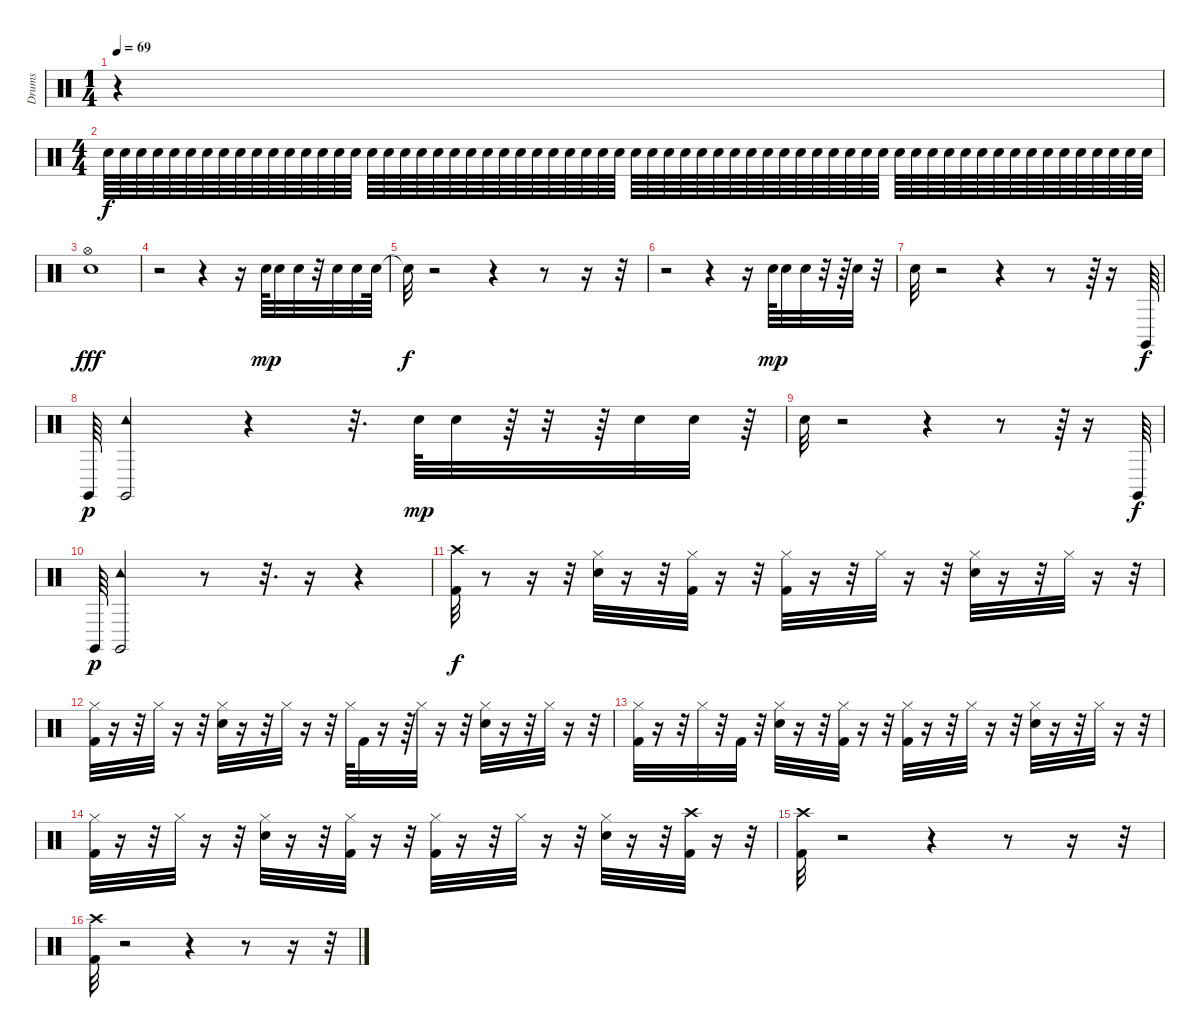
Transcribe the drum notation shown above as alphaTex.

\track ("Drums" "Drums") {instrument percussion}
\staff {score}
\articulation defaults
\ts (1 4)
\tempo 69
\clef neutral
\ks c
r.4{dy f volume 0} |
\ts (4 4)
"Snare (hit) 2".64{volume 16} "Snare (hit) 2".64 "Snare (hit) 2".64 "Snare (hit) 2".64 "Snare (hit) 2".64 "Snare (hit) 2".64 "Snare (hit) 2".64 "Snare (hit) 2".64 "Snare (hit) 2".64 "Snare (hit) 2".64 "Snare (hit) 2".64 "Snare (hit) 2".64 "Snare (hit) 2".64 "Snare (hit) 2".64 "Snare (hit) 2".64 "Snare (hit) 2".64 "Snare (hit) 2".64 "Snare (hit) 2".64 "Snare (hit) 2".64 "Snare (hit) 2".64 "Snare (hit) 2".64 "Snare (hit) 2".64 "Snare (hit) 2".64 "Snare (hit) 2".64 "Snare (hit) 2".64 "Snare (hit) 2".64 "Snare (hit) 2".64 "Snare (hit) 2".64 "Snare (hit) 2".64 "Snare (hit) 2".64 "Snare (hit) 2".64 "Snare (hit) 2".64 "Snare (hit) 2".64 "Snare (hit) 2".64 "Snare (hit) 2".64 "Snare (hit) 2".64 "Snare (hit) 2".64 "Snare (hit) 2".64 "Snare (hit) 2".64 "Snare (hit) 2".64 "Snare (hit) 2".64 "Snare (hit) 2".64 "Snare (hit) 2".64 "Snare (hit) 2".64 "Snare (hit) 2".64 "Snare (hit) 2".64 "Snare (hit) 2".64 "Snare (hit) 2".64 "Snare (hit) 2".64 "Snare (hit) 2".64 "Snare (hit) 2".64 "Snare (hit) 2".64 "Snare (hit) 2".64 "Snare (hit) 2".64 "Snare (hit) 2".64 "Snare (hit) 2".64 "Snare (hit) 2".64 "Snare (hit) 2".64 "Snare (hit) 2".64 "Snare (hit) 2".64 "Snare (hit) 2".64 "Snare (hit) 2".64 "Snare (hit) 2".64 "Snare (hit) 2".64 |
("Snare (hit) 2" "Hi-Hat (open)").1{dy fff} |
r.2 r.4 r.16 "Snare (hit) 2".64{dy mp} "Snare (hit) 2".32 "Snare (hit) 2".32 r.32 "Snare (hit) 2".32 "Snare (hit) 2".32 "Snare (hit) 2".64 |
"Snare (hit)"{t}.32{dy f} r.2 r.4 r.8 r.16 r.32 |
r.2 r.4 r.16 "Snare (hit) 2".64{dy mp} "Snare (hit) 2".32 "Snare (hit) 2".32 r.32 r.64 "Snare (hit) 2".32 r.32 |
"Snare (hit) 2".32 r.2 r.4 r.8 r.64 r.16 "Claves (hit)".64{dy f} |
"Claves (hit)".64{dy p} ("Claves (hit)" "Tambourine (hit)").2 r.4 r.32{d} "Snare (hit) 2".64{dy mp} "Snare (hit) 2".32 r.64 r.32 r.64 "Snare (hit) 2".32 "Snare (hit) 2".32 r.64 |
"Snare (hit) 2".32 r.2 r.4 r.8 r.64 r.16 "Claves (hit)".64{dy f} |
"Claves (hit)".64{dy p} ("Claves (hit)" "Tambourine (hit)").2 r.8 r.32{d} r.16 r.4 |
("Kick (hit) 2" "Crash high (hit)").32{dy f} r.8 r.16 r.32 ("Snare (hit) 2" "Hi-Hat (closed)").32 r.16 r.32 ("Hi-Hat (closed)" "Kick (hit) 2").32 r.16 r.32 ("Hi-Hat (closed)" "Kick (hit) 2").32 r.16 r.32 "Hi-Hat (closed)".32 r.16 r.32 ("Snare (hit) 2" "Hi-Hat (closed)").32 r.16 r.32 "Hi-Hat (closed)".32 r.16 r.32 |
("Hi-Hat (closed)" "Kick (hit) 2").32 r.16 r.32 "Hi-Hat (closed)".32 r.16 r.32 ("Snare (hit) 2" "Hi-Hat (closed)").32 r.16 r.32 "Hi-Hat (closed)".32 r.16 r.32 "Hi-Hat (closed)".64 "Kick (hit) 2".32 r.16 r.64 "Hi-Hat (closed)".32 r.16 r.32 ("Snare (hit) 2" "Hi-Hat (closed)").32 r.16 r.32 "Hi-Hat (closed)".32 r.16 r.32 |
("Hi-Hat (closed)" "Kick (hit) 2").32 r.16 r.32 "Hi-Hat (closed)".32 r.32 "Kick (hit) 2".32 r.32 ("Snare (hit) 2" "Hi-Hat (closed)").32 r.16 r.32 ("Hi-Hat (closed)" "Kick (hit) 2").32 r.16 r.32 ("Hi-Hat (closed)" "Kick (hit) 2").32 r.16 r.32 "Hi-Hat (closed)".32 r.16 r.32 ("Snare (hit) 2" "Hi-Hat (closed)").32 r.16 r.32 "Hi-Hat (closed)".32 r.16 r.32 |
("Kick (hit) 2" "Hi-Hat (closed)").32 r.16 r.32 "Hi-Hat (closed)".32 r.16 r.32 ("Snare (hit) 2" "Hi-Hat (closed)").32 r.16 r.32 ("Kick (hit) 2" "Hi-Hat (closed)").32 r.16 r.32 ("Hi-Hat (closed)" "Kick (hit) 2").32 r.16 r.32 "Hi-Hat (closed)".32 r.16 r.32 ("Snare (hit) 2" "Hi-Hat (closed)").32 r.16 r.32 ("Crash high (hit)" "Kick (hit) 2").32 r.16 r.32 |
("Kick (hit) 2" "Crash high (hit)").32 r.2 r.4 r.8 r.16 r.32 |
("Kick (hit) 2" "Crash high (hit)").32 r.2 r.4 r.8 r.16 r.32
